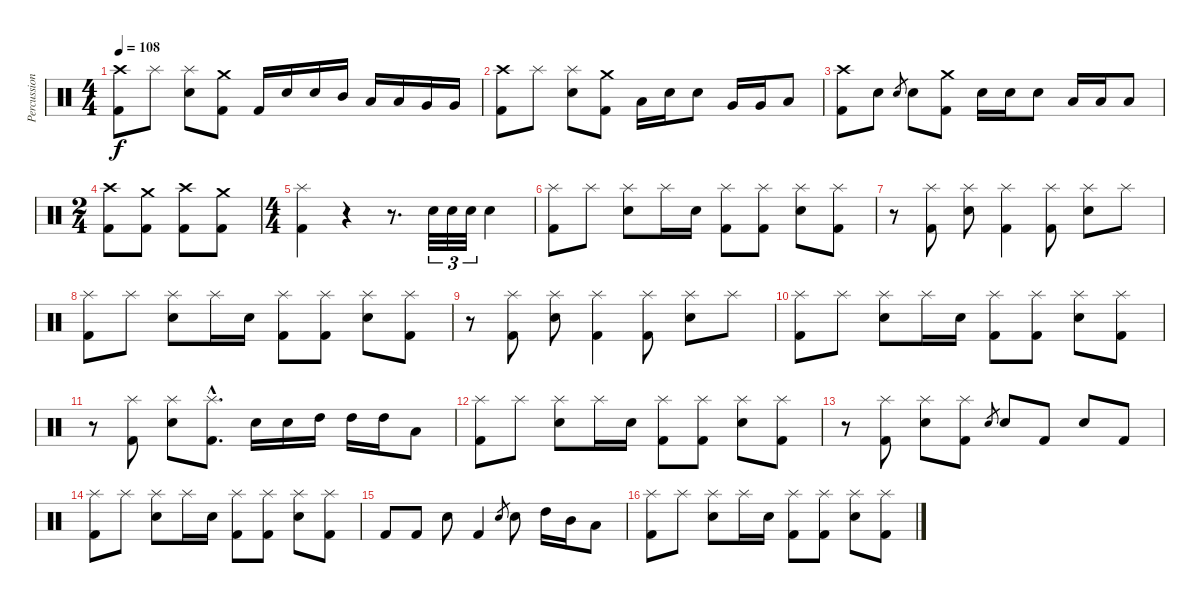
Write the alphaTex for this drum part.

\track ("Percussion" "Percussion") {instrument percussion}
\staff {score}
\articulation defaults
\ts (4 4)
\tempo 108
\clef neutral
\ks c
("Kick (hit) 2" "Crash high (hit)").8{dy f} "Splash (hit)".8 ("Snare (hit) 2" "Splash (hit)").8 ("Kick (hit) 2" "Crash medium (hit)").8 "Kick (hit) 2".16 "Snare (hit) 2".16 "Snare (hit) 2".16 "Mid Tom (hit)".16 "Low Tom (hit)".16 "Low Tom (hit)".16 "Very Low Tom (hit)".16 "Very Low Tom (hit)".16 |
("Kick (hit) 2" "Crash high (hit)").8 "Splash (hit)".8 ("Snare (hit) 2" "Splash (hit)").8 ("Kick (hit) 2" "Crash medium (hit)").8 "Low Tom (hit)".16 "Snare (hit) 2".16 "Snare (hit) 2".8 "Very Low Tom (hit)".16 "Very Low Tom (hit)".16 "Low Floor Tom (hit)".8 |
("Kick (hit) 2" "Crash high (hit)").8 "Snare (hit) 2".8 "Snare (hit) 2".8{gr} "Snare (hit) 2".8 ("Kick (hit) 2" "Crash medium (hit)").8 "Snare (hit) 2".16 "Snare (hit) 2".16 "Snare (hit) 2".8 "Low Tom (hit)".16 "Low Tom (hit)".16 "Low Floor Tom (hit)".8 |
\ts (2 4)
("Kick (hit) 2" "Crash high (hit)").8 ("Kick (hit) 2" "Crash medium (hit)").8 ("Kick (hit) 2" "Crash high (hit)").8 ("Kick (hit) 2" "Crash medium (hit)").8 |
\ts (4 4)
("Kick (hit) 2" "Splash (hit)").4 r.4 r.8{d} "Snare (hit) 2".32{tu (3 2)} "Snare (hit) 2".32{tu (3 2)} "Snare (hit) 2".32{tu (3 2)} "Snare (hit) 2".4 |
("Kick (hit) 2" "Splash (hit)").8 "Splash (hit)".8 ("Snare (hit) 2" "Splash (hit)").8 "Splash (hit)".16 "Snare (hit) 2".16 ("Kick (hit) 2" "Splash (hit)").8 ("Kick (hit) 2" "Splash (hit)").8 ("Snare (hit) 2" "Splash (hit)").8 ("Kick (hit) 2" "Splash (hit)").8 |
r.8 ("Kick (hit) 2" "Splash (hit)").8 ("Snare (hit) 2" "Splash (hit)").8 ("Kick (hit) 2" "Splash (hit)").4 ("Kick (hit) 2" "Splash (hit)").8 ("Snare (hit) 2" "Splash (hit)").8 "Splash (hit)".8 |
("Kick (hit) 2" "Splash (hit)").8 "Splash (hit)".8 ("Snare (hit) 2" "Splash (hit)").8 "Splash (hit)".16 "Snare (hit) 2".16 ("Kick (hit) 2" "Splash (hit)").8 ("Kick (hit) 2" "Splash (hit)").8 ("Snare (hit) 2" "Splash (hit)").8 ("Kick (hit) 2" "Splash (hit)").8 |
r.8 ("Kick (hit) 2" "Splash (hit)").8 ("Snare (hit) 2" "Splash (hit)").8 ("Kick (hit) 2" "Splash (hit)").4 ("Kick (hit) 2" "Splash (hit)").8 ("Snare (hit) 2" "Splash (hit)").8 "Splash (hit)".8 |
("Kick (hit) 2" "Splash (hit)").8 "Splash (hit)".8 ("Snare (hit) 2" "Splash (hit)").8 "Splash (hit)".16 "Snare (hit) 2".16 ("Kick (hit) 2" "Splash (hit)").8 ("Kick (hit) 2" "Splash (hit)").8 ("Snare (hit) 2" "Splash (hit)").8 ("Kick (hit) 2" "Splash (hit)").8 |
r.8 ("Kick (hit) 2" "Splash (hit)").8 ("Snare (hit) 2" "Splash (hit)").8 ("Kick (hit) 2"{hac} "Splash (hit)"{hac}).8{d} "Snare (hit) 2".16 "Snare (hit) 2".16 "High Tom (hit)".16 "High Tom (hit)".16 "High Tom (hit)".16 "Low Tom (hit)".8 |
("Kick (hit) 2" "Splash (hit)").8 "Splash (hit)".8 ("Snare (hit) 2" "Splash (hit)").8 "Splash (hit)".16 "Snare (hit) 2".16 ("Kick (hit) 2" "Splash (hit)").8 ("Kick (hit) 2" "Splash (hit)").8 ("Snare (hit) 2" "Splash (hit)").8 ("Kick (hit) 2" "Splash (hit)").8 |
r.8 ("Kick (hit) 2" "Splash (hit)").8 ("Snare (hit) 2" "Splash (hit)").8 ("Kick (hit) 2" "Splash (hit)").8 "Snare (hit) 2".8{gr} "Snare (hit) 2".8 "Kick (hit) 2".8 "Snare (hit) 2".8 "Kick (hit) 2".8 |
("Kick (hit) 2" "Splash (hit)").8 "Splash (hit)".8 ("Snare (hit) 2" "Splash (hit)").8 "Splash (hit)".16 "Snare (hit) 2".16 ("Kick (hit) 2" "Splash (hit)").8 ("Kick (hit) 2" "Splash (hit)").8 ("Snare (hit) 2" "Splash (hit)").8 ("Kick (hit) 2" "Splash (hit)").8 |
"Kick (hit) 2".8 "Kick (hit) 2".8 "Snare (hit) 2".8 "Kick (hit) 2".4 "Snare (hit) 2".8{gr} "Snare (hit) 2".8 "High Tom (hit)".16 "Mid Tom (hit)".16 "Low Tom (hit)".8 |
("Kick (hit) 2" "Splash (hit)").8 "Splash (hit)".8 ("Snare (hit) 2" "Splash (hit)").8 "Splash (hit)".16 "Snare (hit) 2".16 ("Kick (hit) 2" "Splash (hit)").8 ("Kick (hit) 2" "Splash (hit)").8 ("Snare (hit) 2" "Splash (hit)").8 ("Kick (hit) 2" "Splash (hit)").8
